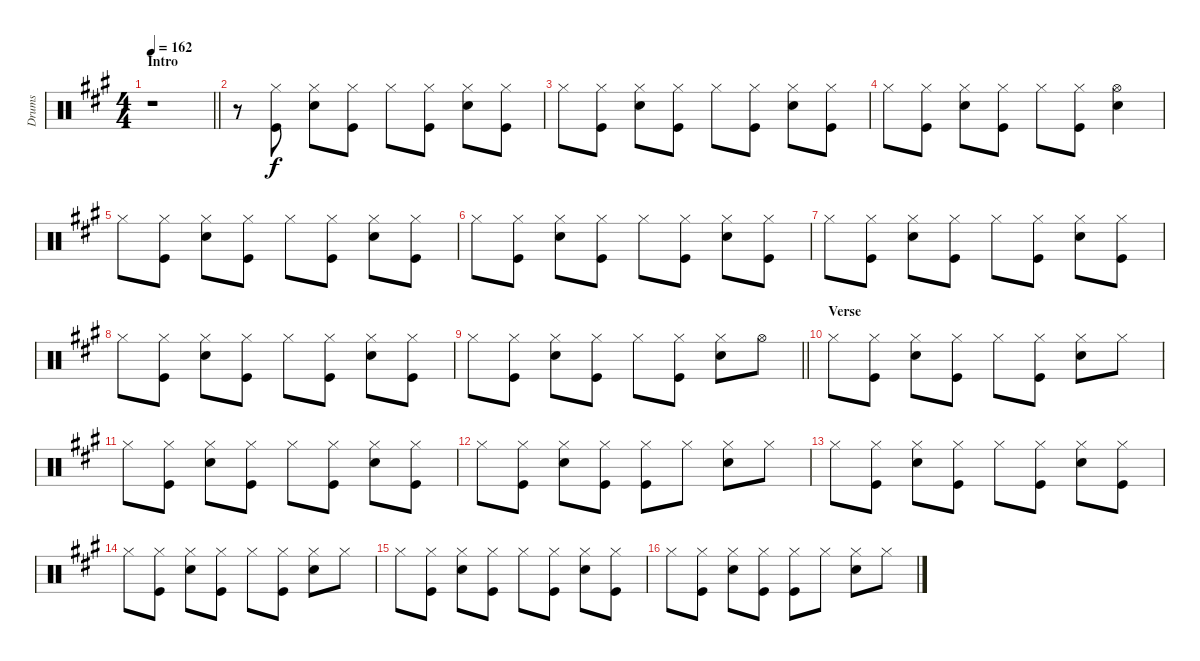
\track ("Drums" "Drums") {instrument percussion}
\staff {score}
\articulation defaults
\ts (4 4)
\section ("" "Intro")
\tempo 162
\clef neutral
\barLineRight lightlight
\ks a
r.1{dy f} |
r.8 ("Kick (hit)" "Hi-Hat (closed)").8 ("Hi-Hat (closed)" "Snare (hit) 2").8 ("Kick (hit)" "Hi-Hat (closed)").8 "Hi-Hat (closed)".8 ("Kick (hit)" "Hi-Hat (closed)").8 ("Hi-Hat (closed)" "Snare (hit) 2").8 ("Kick (hit)" "Hi-Hat (closed)").8 |
"Hi-Hat (closed)".8 ("Kick (hit)" "Hi-Hat (closed)").8 ("Hi-Hat (closed)" "Snare (hit) 2").8 ("Kick (hit)" "Hi-Hat (closed)").8 "Hi-Hat (closed)".8 ("Kick (hit)" "Hi-Hat (closed)").8 ("Hi-Hat (closed)" "Snare (hit) 2").8 ("Kick (hit)" "Hi-Hat (closed)").8 |
"Hi-Hat (closed)".8 ("Kick (hit)" "Hi-Hat (closed)").8 ("Hi-Hat (closed)" "Snare (hit) 2").8 ("Kick (hit)" "Hi-Hat (closed)").8 "Hi-Hat (closed)".8 ("Kick (hit)" "Hi-Hat (closed)").8 ("Hi-Hat (open)" "Snare (hit) 2").4 |
"Hi-Hat (closed)".8 ("Kick (hit)" "Hi-Hat (closed)").8 ("Hi-Hat (closed)" "Snare (hit) 2").8 ("Kick (hit)" "Hi-Hat (closed)").8 "Hi-Hat (closed)".8 ("Kick (hit)" "Hi-Hat (closed)").8 ("Hi-Hat (closed)" "Snare (hit) 2").8 ("Kick (hit)" "Hi-Hat (closed)").8 |
"Hi-Hat (closed)".8 ("Kick (hit)" "Hi-Hat (closed)").8 ("Hi-Hat (closed)" "Snare (hit) 2").8 ("Kick (hit)" "Hi-Hat (closed)").8 "Hi-Hat (closed)".8 ("Kick (hit)" "Hi-Hat (closed)").8 ("Hi-Hat (closed)" "Snare (hit) 2").8 ("Kick (hit)" "Hi-Hat (closed)").8 |
"Hi-Hat (closed)".8 ("Kick (hit)" "Hi-Hat (closed)").8 ("Hi-Hat (closed)" "Snare (hit) 2").8 ("Kick (hit)" "Hi-Hat (closed)").8 "Hi-Hat (closed)".8 ("Kick (hit)" "Hi-Hat (closed)").8 ("Hi-Hat (closed)" "Snare (hit) 2").8 ("Kick (hit)" "Hi-Hat (closed)").8 |
"Hi-Hat (closed)".8 ("Kick (hit)" "Hi-Hat (closed)").8 ("Hi-Hat (closed)" "Snare (hit) 2").8 ("Kick (hit)" "Hi-Hat (closed)").8 "Hi-Hat (closed)".8 ("Kick (hit)" "Hi-Hat (closed)").8 ("Hi-Hat (closed)" "Snare (hit) 2").8 ("Kick (hit)" "Hi-Hat (closed)").8 |
\barLineRight lightlight "Hi-Hat (closed)".8
("Kick (hit)" "Hi-Hat (closed)").8 ("Hi-Hat (closed)" "Snare (hit) 2").8 ("Kick (hit)" "Hi-Hat (closed)").8 "Hi-Hat (closed)".8 ("Kick (hit)" "Hi-Hat (closed)").8 ("Hi-Hat (closed)" "Snare (hit) 2").8 "Hi-Hat (open)".8 |
\section ("" "Verse")
"Hi-Hat (closed)".8 ("Kick (hit)" "Hi-Hat (closed)").8 ("Hi-Hat (closed)" "Snare (hit) 2").8 ("Kick (hit)" "Hi-Hat (closed)").8 "Hi-Hat (closed)".8 ("Kick (hit)" "Hi-Hat (closed)").8 ("Hi-Hat (closed)" "Snare (hit) 2").8 "Hi-Hat (closed)".8 |
"Hi-Hat (closed)".8 ("Kick (hit)" "Hi-Hat (closed)").8 ("Hi-Hat (closed)" "Snare (hit) 2").8 ("Kick (hit)" "Hi-Hat (closed)").8 "Hi-Hat (closed)".8 ("Kick (hit)" "Hi-Hat (closed)").8 ("Hi-Hat (closed)" "Snare (hit) 2").8 ("Kick (hit)" "Hi-Hat (closed)").8 |
"Hi-Hat (closed)".8 ("Kick (hit)" "Hi-Hat (closed)").8 ("Hi-Hat (closed)" "Snare (hit) 2").8 ("Kick (hit)" "Hi-Hat (closed)").8 ("Hi-Hat (closed)" "Kick (hit)").8 "Hi-Hat (closed)".8 ("Hi-Hat (closed)" "Snare (hit) 2").8 "Hi-Hat (closed)".8 |
"Hi-Hat (closed)".8 ("Kick (hit)" "Hi-Hat (closed)").8 ("Hi-Hat (closed)" "Snare (hit) 2").8 ("Kick (hit)" "Hi-Hat (closed)").8 "Hi-Hat (closed)".8 ("Kick (hit)" "Hi-Hat (closed)").8 ("Hi-Hat (closed)" "Snare (hit) 2").8 ("Kick (hit)" "Hi-Hat (closed)").8 |
"Hi-Hat (closed)".8 ("Kick (hit)" "Hi-Hat (closed)").8 ("Hi-Hat (closed)" "Snare (hit) 2").8 ("Kick (hit)" "Hi-Hat (closed)").8 "Hi-Hat (closed)".8 ("Kick (hit)" "Hi-Hat (closed)").8 ("Hi-Hat (closed)" "Snare (hit) 2").8 "Hi-Hat (closed)".8 |
"Hi-Hat (closed)".8 ("Kick (hit)" "Hi-Hat (closed)").8 ("Hi-Hat (closed)" "Snare (hit) 2").8 ("Kick (hit)" "Hi-Hat (closed)").8 "Hi-Hat (closed)".8 ("Kick (hit)" "Hi-Hat (closed)").8 ("Hi-Hat (closed)" "Snare (hit) 2").8 ("Kick (hit)" "Hi-Hat (closed)").8 |
"Hi-Hat (closed)".8 ("Kick (hit)" "Hi-Hat (closed)").8 ("Hi-Hat (closed)" "Snare (hit) 2").8 ("Kick (hit)" "Hi-Hat (closed)").8 ("Hi-Hat (closed)" "Kick (hit)").8 "Hi-Hat (closed)".8 ("Hi-Hat (closed)" "Snare (hit) 2").8 "Hi-Hat (closed)".8
